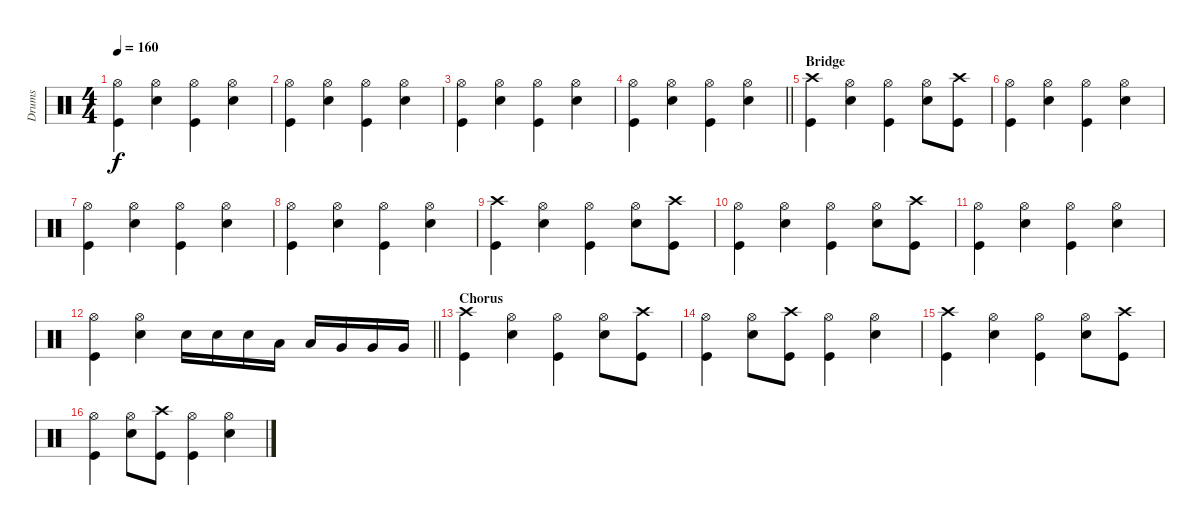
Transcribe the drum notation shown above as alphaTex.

\track ("Drums" "Drums") {instrument percussion}
\staff {score}
\articulation defaults
\ts (4 4)
\tempo 160
\clef neutral
\ks c
("Kick (hit)" "Hi-Hat (open)").4{dy f} ("Snare (hit) 2" "Hi-Hat (open)").4 ("Kick (hit)" "Hi-Hat (open)").4 ("Snare (hit) 2" "Hi-Hat (open)").4 |
("Kick (hit)" "Hi-Hat (open)").4 ("Snare (hit) 2" "Hi-Hat (open)").4 ("Kick (hit)" "Hi-Hat (open)").4 ("Snare (hit) 2" "Hi-Hat (open)").4 |
("Kick (hit)" "Hi-Hat (open)").4 ("Snare (hit) 2" "Hi-Hat (open)").4 ("Kick (hit)" "Hi-Hat (open)").4 ("Snare (hit) 2" "Hi-Hat (open)").4 |
\barLineRight lightlight
("Kick (hit)" "Hi-Hat (open)").4 ("Snare (hit) 2" "Hi-Hat (open)").4 ("Kick (hit)" "Hi-Hat (open)").4 ("Snare (hit) 2" "Hi-Hat (open)").4 |
\section ("" "Bridge")
("Kick (hit)" "Crash high (hit)").4 ("Snare (hit) 2" "Hi-Hat (open)").4 ("Kick (hit)" "Hi-Hat (open)").4 ("Snare (hit) 2" "Hi-Hat (open)").8 ("Kick (hit)" "Crash high (hit)").8 |
("Kick (hit)" "Hi-Hat (open)").4 ("Snare (hit) 2" "Hi-Hat (open)").4 ("Kick (hit)" "Hi-Hat (open)").4 ("Snare (hit) 2" "Hi-Hat (open)").4 |
("Kick (hit)" "Hi-Hat (open)").4 ("Snare (hit) 2" "Hi-Hat (open)").4 ("Kick (hit)" "Hi-Hat (open)").4 ("Snare (hit) 2" "Hi-Hat (open)").4 |
("Kick (hit)" "Hi-Hat (open)").4 ("Snare (hit) 2" "Hi-Hat (open)").4 ("Kick (hit)" "Hi-Hat (open)").4 ("Snare (hit) 2" "Hi-Hat (open)").4 |
("Kick (hit)" "Crash high (hit)").4 ("Snare (hit) 2" "Hi-Hat (open)").4 ("Kick (hit)" "Hi-Hat (open)").4 ("Snare (hit) 2" "Hi-Hat (open)").8 ("Kick (hit)" "Crash high (hit)").8 |
("Kick (hit)" "Hi-Hat (open)").4 ("Snare (hit) 2" "Hi-Hat (open)").4 ("Kick (hit)" "Hi-Hat (open)").4 ("Snare (hit) 2" "Hi-Hat (open)").8 ("Kick (hit)" "Crash high (hit)").8 |
("Kick (hit)" "Hi-Hat (open)").4 ("Snare (hit) 2" "Hi-Hat (open)").4 ("Kick (hit)" "Hi-Hat (open)").4 ("Snare (hit) 2" "Hi-Hat (open)").4 |
\barLineRight lightlight
("Kick (hit)" "Hi-Hat (open)").4 ("Snare (hit) 2" "Hi-Hat (open)").4 "Snare (hit) 2".16 "Snare (hit) 2".16 "Snare (hit) 2".16 "Low Tom (hit)".16 "Low Tom (hit)".16 "Very Low Tom (hit)".16 "Very Low Tom (hit)".16 "Very Low Tom (hit)".16 |
\section ("" "Chorus")
("Kick (hit)" "Crash high (hit)").4 ("Snare (hit) 2" "Hi-Hat (open)").4 ("Kick (hit)" "Hi-Hat (open)").4 ("Snare (hit) 2" "Hi-Hat (open)").8 ("Kick (hit)" "Crash high (hit)").8 |
("Kick (hit)" "Hi-Hat (open)").4 ("Snare (hit) 2" "Hi-Hat (open)").8 ("Kick (hit)" "Crash high (hit)").8 ("Kick (hit)" "Hi-Hat (open)").4 ("Snare (hit) 2" "Hi-Hat (open)").4 |
("Kick (hit)" "Crash high (hit)").4 ("Snare (hit) 2" "Hi-Hat (open)").4 ("Kick (hit)" "Hi-Hat (open)").4 ("Snare (hit) 2" "Hi-Hat (open)").8 ("Kick (hit)" "Crash high (hit)").8 |
("Kick (hit)" "Hi-Hat (open)").4 ("Snare (hit) 2" "Hi-Hat (open)").8 ("Kick (hit)" "Crash high (hit)").8 ("Kick (hit)" "Hi-Hat (open)").4 ("Snare (hit) 2" "Hi-Hat (open)").4
